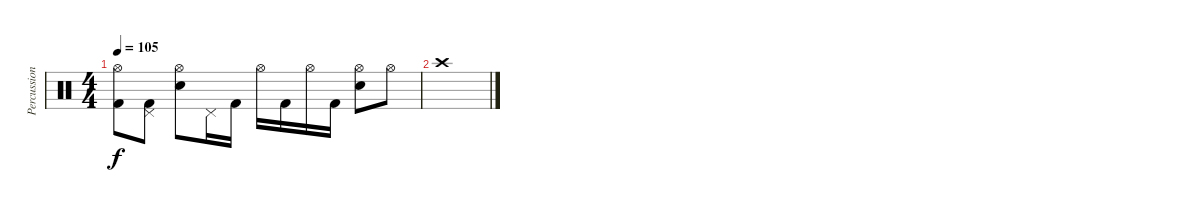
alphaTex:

\track ("Percussion" "Percussion") {instrument percussion}
\staff {score}
\articulation defaults
\ts (4 4)
\tempo 105
\clef neutral
\ks c
("Hi-Hat (open)" "Kick (hit) 2").8{dy f} ("Pedal Hi-Hat (hit)" "Kick (hit) 2").8 ("Hi-Hat (open)" "Electric Snare (hit)").8 "Pedal Hi-Hat (hit)".16 "Kick (hit) 2".16 "Hi-Hat (open)".16 "Kick (hit) 2".16 "Hi-Hat (open)".16 "Kick (hit) 2".16 ("Hi-Hat (open)" "Electric Snare (hit)").8 "Hi-Hat (open)".8 |
"Crash high (hit)".1
